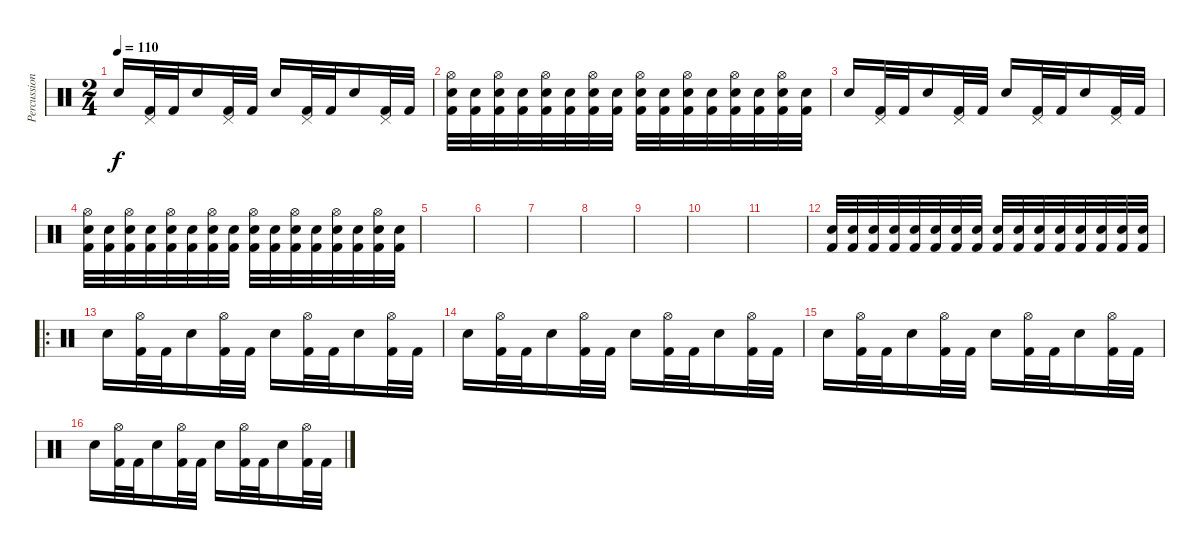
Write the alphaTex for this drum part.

\track ("Percussion" "Percussion") {instrument percussion}
\staff {score}
\articulation defaults
\ts (2 4)
\tempo 110
\clef neutral
\ks c "Snare (hit) 2".16{dy f}
("Pedal Hi-Hat (hit)" "Kick (hit) 2").32 "Kick (hit) 2".32 "Snare (hit) 2".16 ("Pedal Hi-Hat (hit)" "Kick (hit) 2").32 "Kick (hit) 2".32 "Snare (hit) 2".16 ("Pedal Hi-Hat (hit)" "Kick (hit) 2").32 "Kick (hit) 2".32 "Snare (hit) 2".16 ("Pedal Hi-Hat (hit)" "Kick (hit) 2").32 "Kick (hit) 2".32 |
("Snare (hit) 2" "Hi-Hat (open)" "Kick (hit) 2").32 ("Snare (hit) 2" "Kick (hit) 2").32 ("Snare (hit) 2" "Hi-Hat (open)" "Kick (hit) 2").32 ("Snare (hit) 2" "Kick (hit) 2").32 ("Snare (hit) 2" "Hi-Hat (open)" "Kick (hit) 2").32 ("Snare (hit) 2" "Kick (hit) 2").32 ("Snare (hit) 2" "Hi-Hat (open)" "Kick (hit) 2").32 ("Snare (hit) 2" "Kick (hit) 2").32 ("Snare (hit) 2" "Hi-Hat (open)" "Kick (hit) 2").32 ("Snare (hit) 2" "Kick (hit) 2").32 ("Snare (hit) 2" "Hi-Hat (open)" "Kick (hit) 2").32 ("Snare (hit) 2" "Kick (hit) 2").32 ("Snare (hit) 2" "Hi-Hat (open)" "Kick (hit) 2").32 ("Snare (hit) 2" "Kick (hit) 2").32 ("Snare (hit) 2" "Hi-Hat (open)" "Kick (hit) 2").32 ("Snare (hit) 2" "Kick (hit) 2").32 |
"Snare (hit) 2".16 ("Pedal Hi-Hat (hit)" "Kick (hit) 2").32 "Kick (hit) 2".32 "Snare (hit) 2".16 ("Pedal Hi-Hat (hit)" "Kick (hit) 2").32 "Kick (hit) 2".32 "Snare (hit) 2".16 ("Pedal Hi-Hat (hit)" "Kick (hit) 2").32 "Kick (hit) 2".32 "Snare (hit) 2".16 ("Pedal Hi-Hat (hit)" "Kick (hit) 2").32 "Kick (hit) 2".32 |
("Snare (hit) 2" "Hi-Hat (open)" "Kick (hit) 2").32 ("Snare (hit) 2" "Kick (hit) 2").32 ("Snare (hit) 2" "Hi-Hat (open)" "Kick (hit) 2").32 ("Snare (hit) 2" "Kick (hit) 2").32 ("Snare (hit) 2" "Hi-Hat (open)" "Kick (hit) 2").32 ("Snare (hit) 2" "Kick (hit) 2").32 ("Snare (hit) 2" "Hi-Hat (open)" "Kick (hit) 2").32 ("Snare (hit) 2" "Kick (hit) 2").32 ("Snare (hit) 2" "Hi-Hat (open)" "Kick (hit) 2").32 ("Snare (hit) 2" "Kick (hit) 2").32 ("Snare (hit) 2" "Hi-Hat (open)" "Kick (hit) 2").32 ("Snare (hit) 2" "Kick (hit) 2").32 ("Snare (hit) 2" "Hi-Hat (open)" "Kick (hit) 2").32 ("Snare (hit) 2" "Kick (hit) 2").32 ("Snare (hit) 2" "Hi-Hat (open)" "Kick (hit) 2").32 ("Snare (hit) 2" "Kick (hit) 2").32 |
|
|
|
|
|
|
|
("Kick (hit) 2" "Snare (hit) 2").32 ("Kick (hit) 2" "Snare (hit) 2").32 ("Kick (hit) 2" "Snare (hit) 2").32 ("Kick (hit) 2" "Snare (hit) 2").32 ("Kick (hit) 2" "Snare (hit) 2").32 ("Kick (hit) 2" "Snare (hit) 2").32 ("Kick (hit) 2" "Snare (hit) 2").32 ("Kick (hit) 2" "Snare (hit) 2").32 ("Kick (hit) 2" "Snare (hit) 2").32 ("Kick (hit) 2" "Snare (hit) 2").32 ("Kick (hit) 2" "Snare (hit) 2").32 ("Kick (hit) 2" "Snare (hit) 2").32 ("Kick (hit) 2" "Snare (hit) 2").32 ("Kick (hit) 2" "Snare (hit) 2").32 ("Kick (hit) 2" "Snare (hit) 2").32 ("Kick (hit) 2" "Snare (hit) 2").32 |
\ro "Snare (hit) 2".16
("Hi-Hat (open)" "Kick (hit) 2").32 "Kick (hit) 2".32 "Snare (hit) 2".16 ("Hi-Hat (open)" "Kick (hit) 2").32 "Kick (hit) 2".32 "Snare (hit) 2".16 ("Hi-Hat (open)" "Kick (hit) 2").32 "Kick (hit) 2".32 "Snare (hit) 2".16 ("Hi-Hat (open)" "Kick (hit) 2").32 "Kick (hit) 2".32 |
"Snare (hit) 2".16 ("Hi-Hat (open)" "Kick (hit) 2").32 "Kick (hit) 2".32 "Snare (hit) 2".16 ("Hi-Hat (open)" "Kick (hit) 2").32 "Kick (hit) 2".32 "Snare (hit) 2".16 ("Hi-Hat (open)" "Kick (hit) 2").32 "Kick (hit) 2".32 "Snare (hit) 2".16 ("Hi-Hat (open)" "Kick (hit) 2").32 "Kick (hit) 2".32 |
"Snare (hit) 2".16 ("Hi-Hat (open)" "Kick (hit) 2").32 "Kick (hit) 2".32 "Snare (hit) 2".16 ("Hi-Hat (open)" "Kick (hit) 2").32 "Kick (hit) 2".32 "Snare (hit) 2".16 ("Hi-Hat (open)" "Kick (hit) 2").32 "Kick (hit) 2".32 "Snare (hit) 2".16 ("Hi-Hat (open)" "Kick (hit) 2").32 "Kick (hit) 2".32 |
"Snare (hit) 2".16 ("Hi-Hat (open)" "Kick (hit) 2").32 "Kick (hit) 2".32 "Snare (hit) 2".16 ("Hi-Hat (open)" "Kick (hit) 2").32 "Kick (hit) 2".32 "Snare (hit) 2".16 ("Hi-Hat (open)" "Kick (hit) 2").32 "Kick (hit) 2".32 "Snare (hit) 2".16 ("Hi-Hat (open)" "Kick (hit) 2").32 "Kick (hit) 2".32
